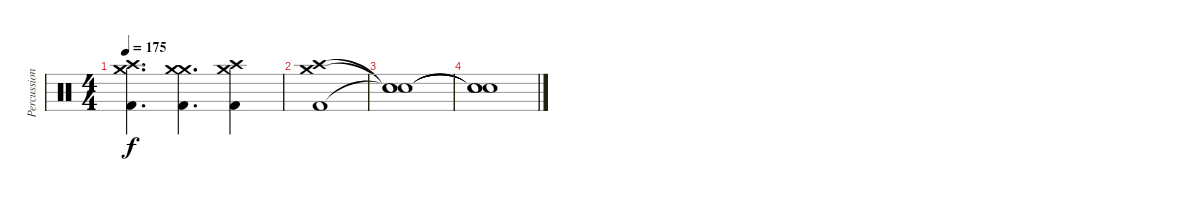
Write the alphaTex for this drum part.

\track ("Percussion" "Percussion") {instrument percussion}
\staff {score}
\articulation defaults
\ts (4 4)
\tempo 175
\clef neutral
\ks c
("Crash high (hit)" "Crash medium (hit)" "Kick (hit) 2").4{d dy f} ("Crash medium (hit)" "Crash medium (hit)" "Kick (hit) 2").4{d} ("Crash high (hit)" "Crash medium (hit)" "Kick (hit) 2").4 |
("Crash medium (hit)" "Crash high (hit)" "Kick (hit) 2").1 |
("Snare (hit)"{t} "Snare (hit)"{t} "Snare (hit)"{t}).1 |
("Snare (hit)"{t} "Snare (hit)"{t} "Snare (hit)"{t}).1
